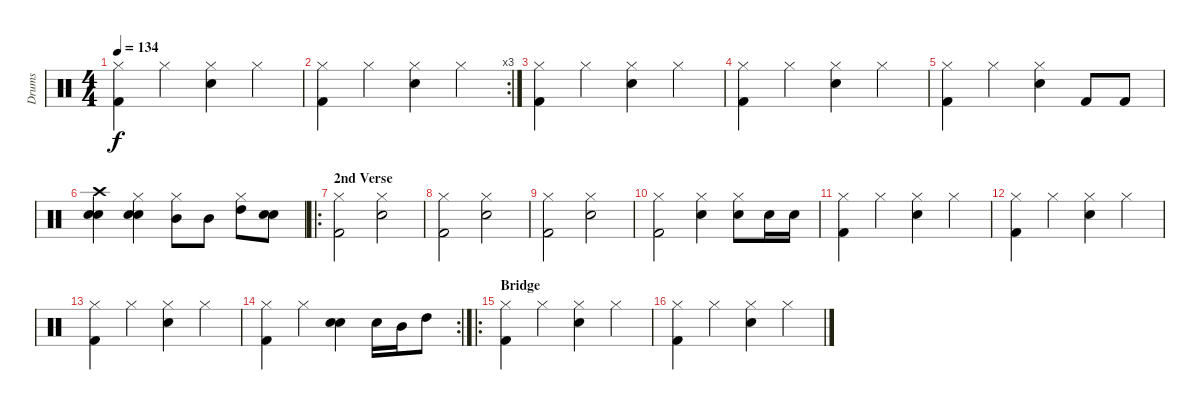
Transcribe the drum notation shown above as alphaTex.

\track ("Drums" "Drums") {instrument percussion}
\staff {score}
\articulation defaults
\ts (4 4)
\tempo 134
\clef neutral
\ks c
("Kick (hit) 2" "Hi-Hat (closed)").4{dy f} "Hi-Hat (closed)".4 ("Electric Snare (hit)" "Hi-Hat (closed)").4 "Hi-Hat (closed)".4 |
\rc 3
("Kick (hit) 2" "Hi-Hat (closed)").4 "Hi-Hat (closed)".4 ("Electric Snare (hit)" "Hi-Hat (closed)").4 "Hi-Hat (closed)".4 |
("Kick (hit) 2" "Hi-Hat (closed)").4 "Hi-Hat (closed)".4 ("Electric Snare (hit)" "Hi-Hat (closed)").4 "Hi-Hat (closed)".4 |
("Kick (hit) 2" "Hi-Hat (closed)").4 "Hi-Hat (closed)".4 ("Electric Snare (hit)" "Hi-Hat (closed)").4 "Hi-Hat (closed)".4 |
("Kick (hit) 2" "Hi-Hat (closed)").4 "Hi-Hat (closed)".4 ("Electric Snare (hit)" "Hi-Hat (closed)").4 "Kick (hit) 2".8 "Kick (hit) 2".8 |
("Electric Snare (hit)" "Electric Snare (hit)" "Crash high (hit)").4 ("Electric Snare (hit)" "Electric Snare (hit)" "Hi-Hat (closed)").4 ("Mid Tom (hit)" "Hi-Hat (closed)").8 "Mid Tom (hit)".8 ("High Tom (hit)" "Hi-Hat (closed)").8 ("Electric Snare (hit)" "Electric Snare (hit)").8 |
\ro
\section ("" "2nd Verse")
("Kick (hit) 2" "Hi-Hat (closed)").2{volume 16} ("Electric Snare (hit)" "Hi-Hat (closed)").2 |
("Kick (hit) 2" "Hi-Hat (closed)").2 ("Electric Snare (hit)" "Hi-Hat (closed)").2 |
("Kick (hit) 2" "Hi-Hat (closed)").2 ("Electric Snare (hit)" "Hi-Hat (closed)").2 |
("Kick (hit) 2" "Hi-Hat (closed)").2 ("Electric Snare (hit)" "Hi-Hat (closed)").4 ("Electric Snare (hit)" "Hi-Hat (closed)").8 "Electric Snare (hit)".16 "Electric Snare (hit)".16 |
("Kick (hit) 2" "Hi-Hat (closed)").4 "Hi-Hat (closed)".4 ("Electric Snare (hit)" "Hi-Hat (closed)").4 "Hi-Hat (closed)".4 |
("Kick (hit) 2" "Hi-Hat (closed)").4 "Hi-Hat (closed)".4 ("Electric Snare (hit)" "Hi-Hat (closed)").4 "Hi-Hat (closed)".4 |
("Kick (hit) 2" "Hi-Hat (closed)").4 "Hi-Hat (closed)".4 ("Electric Snare (hit)" "Hi-Hat (closed)").4 "Hi-Hat (closed)".4 |
\rc 2
("Kick (hit) 2" "Hi-Hat (closed)").4 "Hi-Hat (closed)".4 ("Electric Snare (hit)" "Electric Snare (hit)").4 "Electric Snare (hit)".16 "Mid Tom (hit)".16 "High Tom (hit)".8 |
\ro
\section ("" "Bridge")
("Kick (hit) 2" "Hi-Hat (closed)").4 "Hi-Hat (closed)".4 ("Electric Snare (hit)" "Hi-Hat (closed)").4 "Hi-Hat (closed)".4 |
("Kick (hit) 2" "Hi-Hat (closed)").4 "Hi-Hat (closed)".4 ("Electric Snare (hit)" "Hi-Hat (closed)").4 "Hi-Hat (closed)".4
